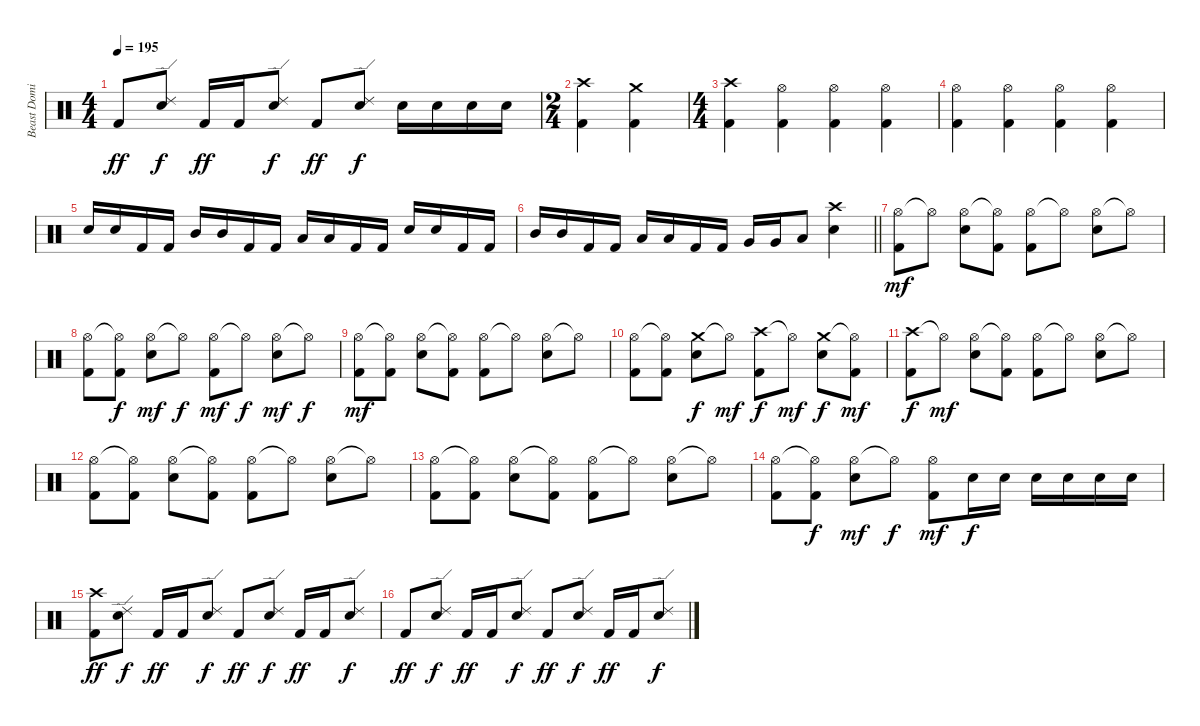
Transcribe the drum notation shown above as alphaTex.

\track ("Beast Dominator" "Beast Domi") {instrument percussion}
\staff {score}
\articulation defaults
\ts (4 4)
\tempo 195
\clef neutral
\ks c "Kick (hit) 2".8{dy ff}
("Ride (edge) 2" "Snare (hit) 2").8{dy f} "Kick (hit) 2".16{dy ff} "Kick (hit) 2".16 ("Ride (edge) 2" "Snare (hit) 2").8{dy f} "Kick (hit) 2".8{dy ff} ("Ride (edge) 2" "Snare (hit) 2").8{dy f} "Snare (hit) 2".16 "Snare (hit) 2".16 "Snare (hit) 2".16 "Snare (hit) 2".16 |
\ts (2 4)
("Crash high (hit)" "Kick (hit) 2").4 ("Crash medium (hit)" "Kick (hit) 2").4 |
\ts (4 4)
("Crash high (hit)" "Kick (hit) 2").4 ("Hi-Hat (open)" "Kick (hit) 2").4 ("Hi-Hat (open)" "Kick (hit) 2").4 ("Hi-Hat (open)" "Kick (hit) 2").4 |
("Hi-Hat (open)" "Kick (hit) 2").4 ("Hi-Hat (open)" "Kick (hit) 2").4 ("Hi-Hat (open)" "Kick (hit) 2").4 ("Hi-Hat (open)" "Kick (hit) 2").4 |
"Snare (hit) 2".16 "Snare (hit) 2".16 "Kick (hit) 2".16 "Kick (hit) 2".16 "Mid Tom (hit)".16 "Mid Tom (hit)".16 "Kick (hit) 2".16 "Kick (hit) 2".16 "Low Tom (hit)".16 "Low Tom (hit)".16 "Kick (hit) 2".16 "Kick (hit) 2".16 "Snare (hit) 2".16 "Snare (hit) 2".16 "Kick (hit) 2".16 "Kick (hit) 2".16 |
\barLineRight lightlight "Mid Tom (hit)".16 "Mid Tom (hit)".16 "Kick (hit) 2".16 "Kick (hit) 2".16 "Low Tom (hit)".16 "Low Tom (hit)".16 "Kick (hit) 2".16 "Kick (hit) 2".16 "Very Low Tom (hit)".16 "Very Low Tom (hit)".16 "Low Floor Tom (hit)".8
("Crash high (hit)" "Snare (hit) 2").4 |
("Hi-Hat (open)" "Kick (hit) 2").8{dy mf} "Hi-Hat (open)"{t}.8 ("Hi-Hat (open)" "Snare (hit) 2").8 ("Hi-Hat (open)"{t} "Kick (hit) 2").8 ("Hi-Hat (open)" "Kick (hit) 2").8 "Hi-Hat (open)"{t}.8 ("Hi-Hat (open)" "Snare (hit) 2").8 "Hi-Hat (open)"{t}.8 |
("Hi-Hat (open)" "Kick (hit) 2").8 ("Hi-Hat (open)"{t} "Kick (hit) 2").8{dy f} ("Hi-Hat (open)" "Snare (hit) 2").8{dy mf} "Hi-Hat (open)"{t}.8{dy f} ("Hi-Hat (open)" "Kick (hit) 2").8{dy mf} "Hi-Hat (open)"{t}.8{dy f} ("Hi-Hat (open)" "Snare (hit) 2").8{dy mf} "Hi-Hat (open)"{t}.8{dy f} |
("Hi-Hat (open)" "Kick (hit) 2").8{dy mf} ("Hi-Hat (open)"{t} "Kick (hit) 2").8 ("Hi-Hat (open)" "Snare (hit) 2").8 ("Hi-Hat (open)"{t} "Kick (hit) 2").8 ("Hi-Hat (open)" "Kick (hit) 2").8 "Hi-Hat (open)"{t}.8 ("Hi-Hat (open)" "Snare (hit) 2").8 "Hi-Hat (open)"{t}.8 |
("Hi-Hat (open)" "Kick (hit) 2").8 ("Hi-Hat (open)"{t} "Kick (hit) 2").8 ("Crash medium (hit)" "Snare (hit) 2").8{dy f} "Hi-Hat (open)"{t}.8{dy mf} ("Crash high (hit)" "Kick (hit) 2").8{dy f} "Hi-Hat (open)"{t}.8{dy mf} ("Crash medium (hit)" "Snare (hit) 2").8{dy f} ("Hi-Hat (open)"{t} "Kick (hit) 2").8{dy mf} |
("Crash high (hit)" "Kick (hit) 2").8{dy f} "Hi-Hat (open)"{t}.8{dy mf} ("Hi-Hat (open)" "Snare (hit) 2").8 ("Hi-Hat (open)"{t} "Kick (hit) 2").8 ("Hi-Hat (open)" "Kick (hit) 2").8 "Hi-Hat (open)"{t}.8 ("Hi-Hat (open)" "Snare (hit) 2").8 "Hi-Hat (open)"{t}.8 |
("Hi-Hat (open)" "Kick (hit) 2").8 ("Hi-Hat (open)"{t} "Kick (hit) 2").8 ("Hi-Hat (open)" "Snare (hit) 2").8 ("Hi-Hat (open)"{t} "Kick (hit) 2").8 ("Hi-Hat (open)" "Kick (hit) 2").8 "Hi-Hat (open)"{t}.8 ("Hi-Hat (open)" "Snare (hit) 2").8 "Hi-Hat (open)"{t}.8 |
("Hi-Hat (open)" "Kick (hit) 2").8 ("Hi-Hat (open)"{t} "Kick (hit) 2").8 ("Hi-Hat (open)" "Snare (hit) 2").8 ("Hi-Hat (open)"{t} "Kick (hit) 2").8 ("Hi-Hat (open)" "Kick (hit) 2").8 "Hi-Hat (open)"{t}.8 ("Hi-Hat (open)" "Snare (hit) 2").8 "Hi-Hat (open)"{t}.8 |
("Hi-Hat (open)" "Kick (hit) 2").8 ("Hi-Hat (open)"{t} "Kick (hit) 2").8{dy f} ("Hi-Hat (open)" "Snare (hit) 2").8{dy mf} "Hi-Hat (open)"{t}.8{dy f} ("Hi-Hat (open)" "Kick (hit) 2").8{dy mf} "Snare (hit) 2".16{dy f} "Snare (hit) 2".16 "Snare (hit) 2".16 "Snare (hit) 2".16 "Snare (hit) 2".16 "Snare (hit) 2".16 |
("Crash high (hit)" "Kick (hit) 2").8{dy ff} ("Ride (edge) 2" "Snare (hit) 2").8{dy f} "Kick (hit) 2".16{dy ff} "Kick (hit) 2".16 ("Ride (edge) 2" "Snare (hit) 2").8{dy f} "Kick (hit) 2".8{dy ff} ("Ride (edge) 2" "Snare (hit) 2").8{dy f} "Kick (hit) 2".16{dy ff} "Kick (hit) 2".16 ("Ride (edge) 2" "Snare (hit) 2").8{dy f} |
"Kick (hit) 2".8{dy ff} ("Ride (edge) 2" "Snare (hit) 2").8{dy f} "Kick (hit) 2".16{dy ff} "Kick (hit) 2".16 ("Ride (edge) 2" "Snare (hit) 2").8{dy f} "Kick (hit) 2".8{dy ff} ("Ride (edge) 2" "Snare (hit) 2").8{dy f} "Kick (hit) 2".16{dy ff} "Kick (hit) 2".16 ("Ride (edge) 2" "Snare (hit) 2").8{dy f}
